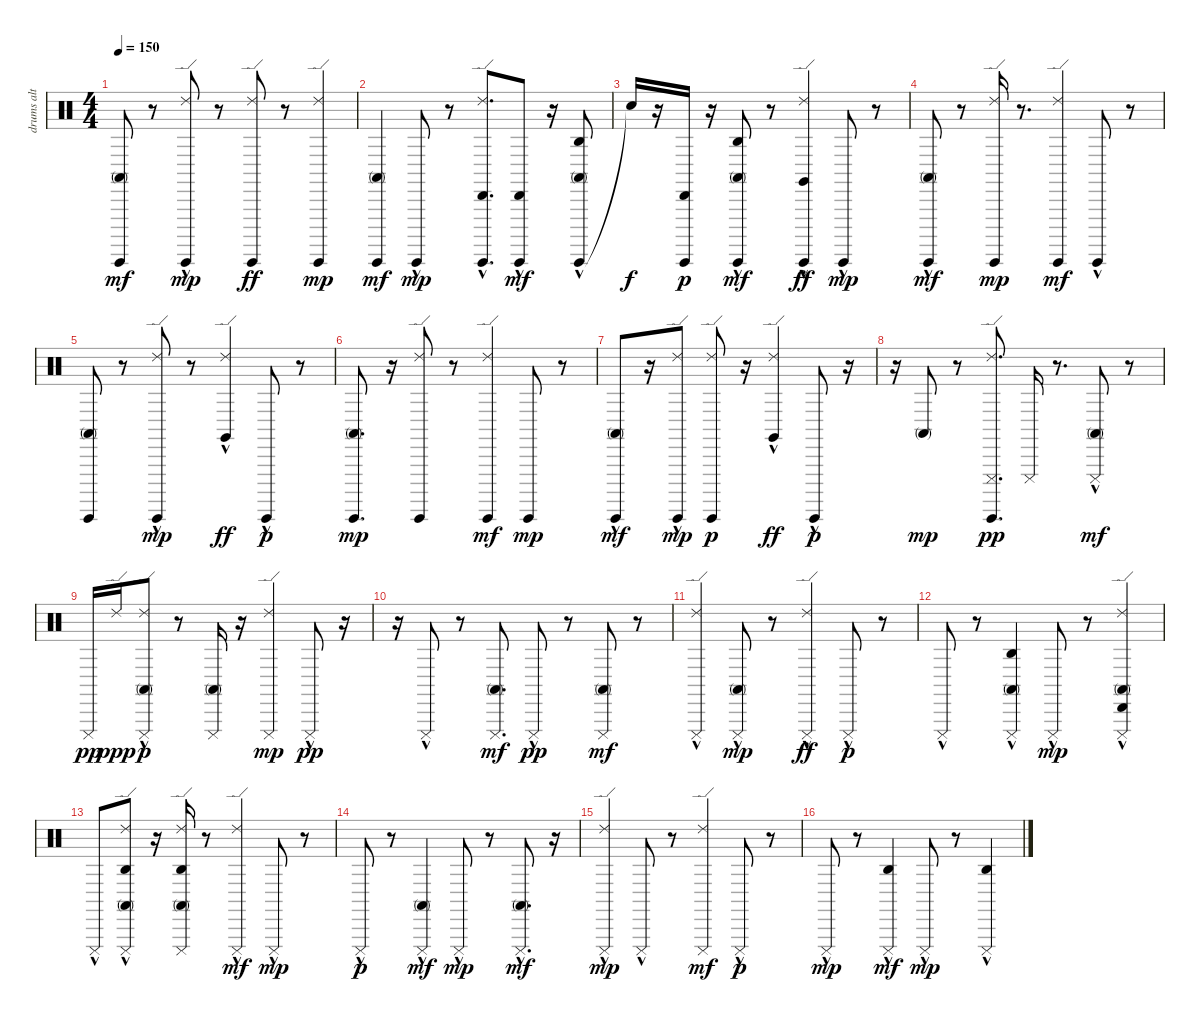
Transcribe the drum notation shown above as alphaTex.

\track ("drums alt" "drums alt") {instrument percussion}
\staff {score}
\articulation defaults
\ts (4 4)
\tempo 150
\clef neutral
\ks c
("Guiro (hit)" "Conga high (mute)").8{dy mf} r.8 ("Guiro (hit)"{hac} "Ride (edge) 2").8{dy mp} r.8 ("Guiro (hit)" "Ride (edge) 2").8{dy ff} r.8 ("Guiro (hit)" "Ride (edge) 2").4{dy mp} |
("Conga high (mute)" "Guiro (hit)").4{dy mf} "Guiro (hit)"{hac}.8{dy mp} r.8 ("Guiro (hit)" "Ride (edge) 2" "Cabasa (hit)"{hac}).8{d} ("Guiro (hit)" "Cabasa (hit)"{hac}).8{dy mf} r.16 ("Guiro (hit)" "Agogo high (hit)"{hac} "Conga high (mute)").8 |
"Snare (hit)"{t}.16{dy f} r.16 ("Guiro (hit)" "Cabasa (hit)").16{dy p} r.16 ("Guiro (hit)"{hac} "Agogo high (hit)" "Conga high (mute)"{hac}).8{dy mf} r.8 ("Claves (hit)"{hac} "Guiro (hit)" "Ride (edge) 2").4{dy ff} "Guiro (hit)"{hac}.8{dy mp} r.8 |
("Conga high (mute)" "Guiro (hit)"{hac}).8{dy mf} r.8 ("Ride (edge) 2" "Guiro (hit)").16{dy mp} r.8{d} ("Guiro (hit)" "Ride (edge) 2").4{dy mf} "Guiro (hit)"{hac}.8 r.8 |
("Guiro (hit)" "Conga high (mute)").8 r.8 ("Ride (edge) 2"{hac} "Guiro (hit)"{hac}).8{dy mp} r.8 ("Claves (hit)"{hac} "Ride (edge) 2").4{dy ff} "Guiro (hit)"{hac}.8{dy p} r.8 |
("Conga high (mute)" "Guiro (hit)").8{d dy mp} r.16 ("Guiro (hit)" "Ride (edge) 2").8 r.8 ("Ride (edge) 2" "Guiro (hit)").4{dy mf} "Guiro (hit)".8{dy mp} r.8 |
("Guiro (hit)" "Conga high (mute)"{hac}).8{dy mf} r.16 ("Ride (edge) 2"{hac} "Guiro (hit)"{hac}).8{dy mp} ("Ride (edge) 2" "Guiro (hit)").8{dy p} r.16 ("Claves (hit)"{hac} "Ride (edge) 2").4{dy ff} "Guiro (hit)"{hac}.8{dy p} r.16 |
r.16 "Conga high (mute)".8{dy mp} r.8 ("Ride (edge) 2" "Cuica (mute)" "Guiro (hit)").8{d dy pp} "Cuica (mute)".16 r.8{d} ("Cuica (mute)"{hac} "Conga high (mute)"{hac}).8{dy mf} r.8 |
"Cuica (mute)".16{dy pp} "Ride (edge) 2".16{dy ppp} ("Conga high (mute)" "Ride (edge) 2" "Cuica (mute)"{hac}).8{dy p} r.8 ("Conga high (mute)" "Cuica (mute)").16 r.16 ("Cuica (mute)" "Ride (edge) 2").4{dy mp} "Cuica (mute)"{hac}.8{dy pp} r.16 |
r.16 "Cuica (mute)"{hac}.8 r.8 ("Cuica (mute)" "Conga high (mute)").8{d dy mf} "Cuica (mute)"{hac}.8{dy pp} r.8 ("Cuica (mute)" "Conga high (mute)").8{dy mf} r.8 |
("Cuica (mute)"{hac} "Ride (edge) 2").4 ("Cuica (mute)"{hac} "Conga high (mute)"{hac}).8{dy mp} r.8 ("Cuica (mute)"{hac} "Ride (edge) 2").4{dy ff} "Cuica (mute)"{hac}.8{dy p} r.8 |
"Cuica (mute)"{hac}.8 r.8 ("Cuica (mute)"{hac} "Conga high (mute)" "Agogo high (hit)").4 "Cuica (mute)"{hac}.8{dy mp} r.8 ("Cuica (mute)"{hac} "Conga high (mute)" "Ride (edge) 2"{hac} "Cabasa (hit)").4 |
"Cuica (mute)"{hac}.8 ("Ride (edge) 2" "Cuica (mute)"{hac} "Conga high (mute)" "Agogo high (hit)").8 r.16 ("Ride (edge) 2" "Conga high (mute)" "Cuica (mute)" "Agogo high (hit)").16 r.8 ("Cuica (mute)"{hac} "Ride (edge) 2").4{dy mf} "Cuica (mute)"{hac}.8{dy mp} r.8 |
"Cuica (mute)"{hac}.8{dy p} r.8 ("Cuica (mute)"{hac} "Conga high (mute)").4{dy mf} "Cuica (mute)"{hac}.8{dy mp} r.8 ("Cuica (mute)"{hac} "Conga high (mute)").8{d dy mf} r.16 |
("Cuica (mute)"{hac} "Ride (edge) 2"{hac}).4{dy mp} "Cuica (mute)"{hac}.8 r.8 ("Cuica (mute)" "Ride (edge) 2").4{dy mf} "Cuica (mute)"{hac}.8{dy p} r.8 |
"Cuica (mute)"{hac}.8{dy mp} r.8 ("Cuica (mute)"{hac} "Agogo high (hit)").4{dy mf} "Cuica (mute)"{hac}.8{dy mp} r.8 ("Agogo high (hit)" "Cuica (mute)"{hac}).4
